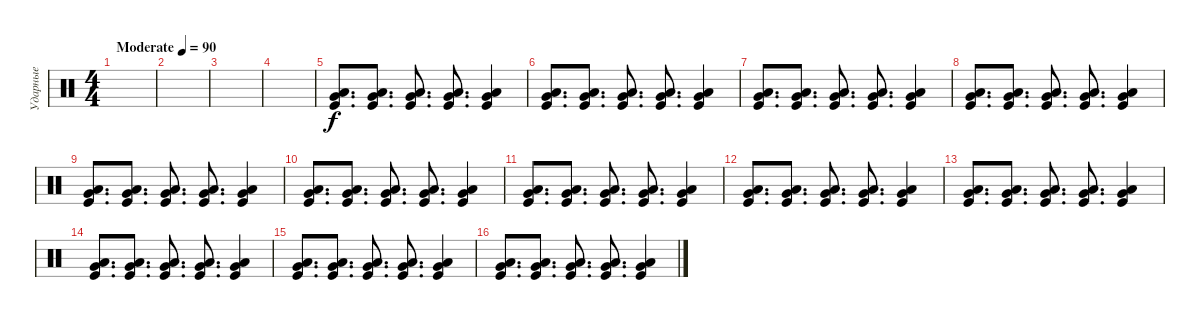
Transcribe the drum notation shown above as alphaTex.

\track ("Ударные" "Ударные") {instrument percussion}
\staff {score}
\articulation defaults
\ts (4 4)
\tempo (90 "Moderate")
\clef neutral
\ks c
|
|
|
|
("Very Low Tom (hit)" "Low Floor Tom (hit)" "Kick (hit)").8{d} ("Very Low Tom (hit)" "Low Floor Tom (hit)" "Kick (hit)").8{d} ("Very Low Tom (hit)" "Low Floor Tom (hit)" "Kick (hit)").8{d} ("Very Low Tom (hit)" "Low Floor Tom (hit)" "Kick (hit)").8{d} ("Very Low Tom (hit)" "Low Floor Tom (hit)" "Kick (hit)").4 |
("Very Low Tom (hit)" "Low Floor Tom (hit)" "Kick (hit)").8{d} ("Very Low Tom (hit)" "Low Floor Tom (hit)" "Kick (hit)").8{d} ("Very Low Tom (hit)" "Low Floor Tom (hit)" "Kick (hit)").8{d} ("Very Low Tom (hit)" "Low Floor Tom (hit)" "Kick (hit)").8{d} ("Very Low Tom (hit)" "Low Floor Tom (hit)" "Kick (hit)").4 |
("Very Low Tom (hit)" "Low Floor Tom (hit)" "Kick (hit)").8{d} ("Very Low Tom (hit)" "Low Floor Tom (hit)" "Kick (hit)").8{d} ("Very Low Tom (hit)" "Low Floor Tom (hit)" "Kick (hit)").8{d} ("Very Low Tom (hit)" "Low Floor Tom (hit)" "Kick (hit)").8{d} ("Very Low Tom (hit)" "Low Floor Tom (hit)" "Kick (hit)").4 |
("Very Low Tom (hit)" "Low Floor Tom (hit)" "Kick (hit)").8{d} ("Very Low Tom (hit)" "Low Floor Tom (hit)" "Kick (hit)").8{d} ("Very Low Tom (hit)" "Low Floor Tom (hit)" "Kick (hit)").8{d} ("Very Low Tom (hit)" "Low Floor Tom (hit)" "Kick (hit)").8{d} ("Very Low Tom (hit)" "Low Floor Tom (hit)" "Kick (hit)").4 |
("Very Low Tom (hit)" "Low Floor Tom (hit)" "Kick (hit)").8{d} ("Very Low Tom (hit)" "Low Floor Tom (hit)" "Kick (hit)").8{d} ("Very Low Tom (hit)" "Low Floor Tom (hit)" "Kick (hit)").8{d} ("Very Low Tom (hit)" "Low Floor Tom (hit)" "Kick (hit)").8{d} ("Very Low Tom (hit)" "Low Floor Tom (hit)" "Kick (hit)").4 |
("Very Low Tom (hit)" "Low Floor Tom (hit)" "Kick (hit)").8{d} ("Very Low Tom (hit)" "Low Floor Tom (hit)" "Kick (hit)").8{d} ("Very Low Tom (hit)" "Low Floor Tom (hit)" "Kick (hit)").8{d} ("Very Low Tom (hit)" "Low Floor Tom (hit)" "Kick (hit)").8{d} ("Very Low Tom (hit)" "Low Floor Tom (hit)" "Kick (hit)").4 |
("Very Low Tom (hit)" "Low Floor Tom (hit)" "Kick (hit)").8{d} ("Very Low Tom (hit)" "Low Floor Tom (hit)" "Kick (hit)").8{d} ("Very Low Tom (hit)" "Low Floor Tom (hit)" "Kick (hit)").8{d} ("Very Low Tom (hit)" "Low Floor Tom (hit)" "Kick (hit)").8{d} ("Very Low Tom (hit)" "Low Floor Tom (hit)" "Kick (hit)").4 |
("Very Low Tom (hit)" "Low Floor Tom (hit)" "Kick (hit)").8{d} ("Very Low Tom (hit)" "Low Floor Tom (hit)" "Kick (hit)").8{d} ("Very Low Tom (hit)" "Low Floor Tom (hit)" "Kick (hit)").8{d} ("Very Low Tom (hit)" "Low Floor Tom (hit)" "Kick (hit)").8{d} ("Very Low Tom (hit)" "Low Floor Tom (hit)" "Kick (hit)").4 |
("Very Low Tom (hit)" "Low Floor Tom (hit)" "Kick (hit)").8{d} ("Very Low Tom (hit)" "Low Floor Tom (hit)" "Kick (hit)").8{d} ("Very Low Tom (hit)" "Low Floor Tom (hit)" "Kick (hit)").8{d} ("Very Low Tom (hit)" "Low Floor Tom (hit)" "Kick (hit)").8{d} ("Very Low Tom (hit)" "Low Floor Tom (hit)" "Kick (hit)").4 |
("Very Low Tom (hit)" "Low Floor Tom (hit)" "Kick (hit)").8{d} ("Very Low Tom (hit)" "Low Floor Tom (hit)" "Kick (hit)").8{d} ("Very Low Tom (hit)" "Low Floor Tom (hit)" "Kick (hit)").8{d} ("Very Low Tom (hit)" "Low Floor Tom (hit)" "Kick (hit)").8{d} ("Very Low Tom (hit)" "Low Floor Tom (hit)" "Kick (hit)").4 |
("Very Low Tom (hit)" "Low Floor Tom (hit)" "Kick (hit)").8{d} ("Very Low Tom (hit)" "Low Floor Tom (hit)" "Kick (hit)").8{d} ("Very Low Tom (hit)" "Low Floor Tom (hit)" "Kick (hit)").8{d} ("Very Low Tom (hit)" "Low Floor Tom (hit)" "Kick (hit)").8{d} ("Very Low Tom (hit)" "Low Floor Tom (hit)" "Kick (hit)").4 |
("Very Low Tom (hit)" "Low Floor Tom (hit)" "Kick (hit)").8{d} ("Very Low Tom (hit)" "Low Floor Tom (hit)" "Kick (hit)").8{d} ("Very Low Tom (hit)" "Low Floor Tom (hit)" "Kick (hit)").8{d} ("Very Low Tom (hit)" "Low Floor Tom (hit)" "Kick (hit)").8{d} ("Very Low Tom (hit)" "Low Floor Tom (hit)" "Kick (hit)").4
